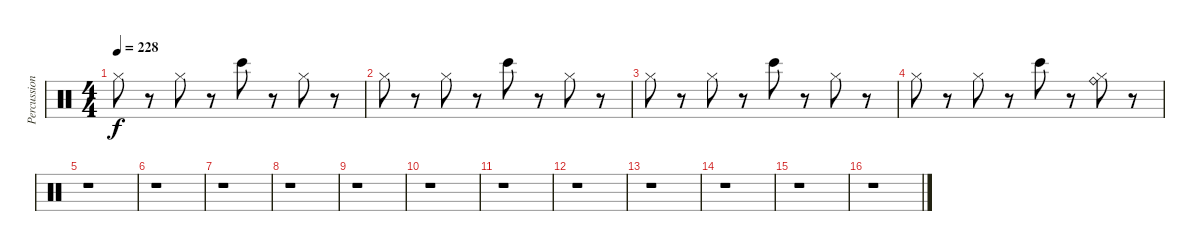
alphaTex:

\track ("Percussions" "Percussion") {instrument percussion}
\staff {score}
\articulation defaults
\ts (4 4)
\tempo 228
\clef neutral
\ks c "Hi-Hat (closed)".8{dy f}
r.8 "Hi-Hat (closed)".8 r.8 "Bongo High (hit)".8 r.8 "Hi-Hat (closed)".8 r.8 |
"Hi-Hat (closed)".8 r.8 "Hi-Hat (closed)".8 r.8 "Bongo High (hit)".8 r.8 "Hi-Hat (closed)".8 r.8 |
"Hi-Hat (closed)".8 r.8 "Hi-Hat (closed)".8 r.8 "Bongo High (hit)".8 r.8 "Hi-Hat (closed)".8 r.8 |
"Hi-Hat (closed)".8 r.8 "Hi-Hat (closed)".8 r.8 "Bongo High (hit)".8 r.8 ("Ride (bell)" "Hi-Hat (closed)").8 r.8 |
r.1 |
r.1 |
r.1 |
r.1 |
r.1 |
r.1 |
r.1 |
r.1 |
r.1 |
r.1 |
r.1 |
r.1
